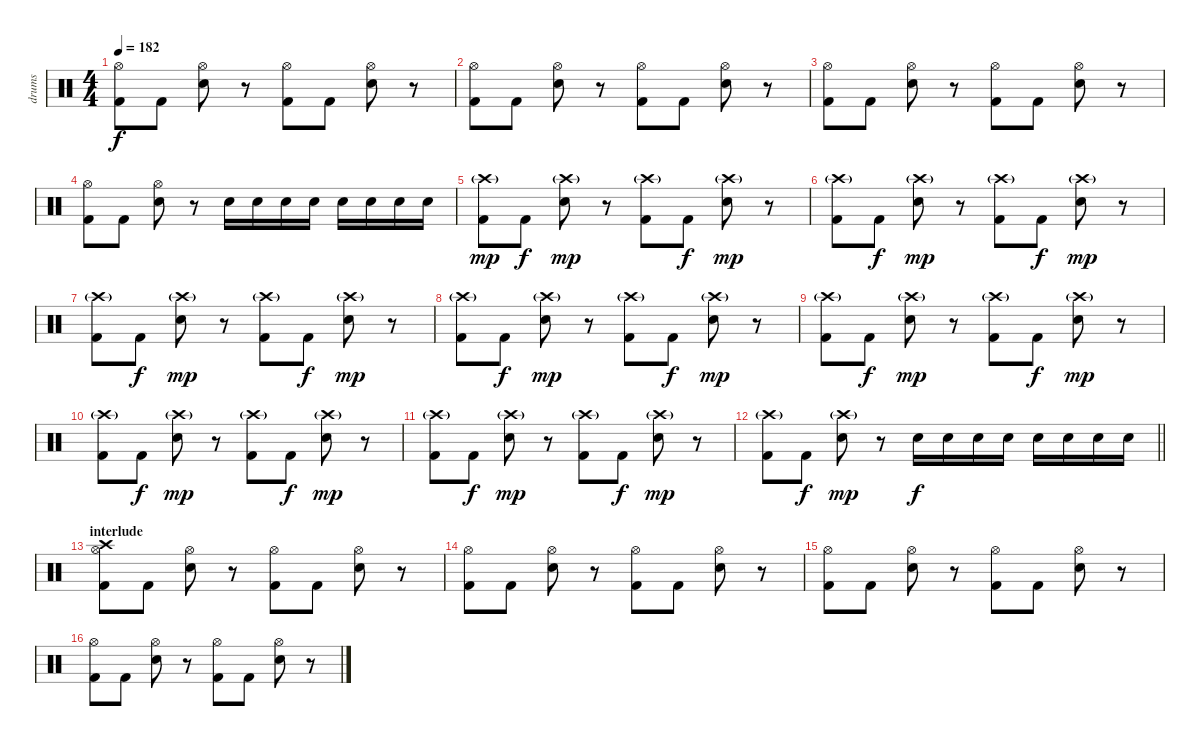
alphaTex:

\track ("drums" "drums") {instrument percussion}
\staff {score}
\articulation defaults
\ts (4 4)
\tempo 182
\clef neutral
\ks c
("Kick (hit) 2" "Hi-Hat (open)").8{dy f} "Kick (hit) 2".8 ("Electric Snare (hit)" "Hi-Hat (open)").8 r.8 ("Kick (hit) 2" "Hi-Hat (open)").8 "Kick (hit) 2".8 ("Electric Snare (hit)" "Hi-Hat (open)").8 r.8 |
("Kick (hit) 2" "Hi-Hat (open)").8 "Kick (hit) 2".8 ("Electric Snare (hit)" "Hi-Hat (open)").8 r.8 ("Kick (hit) 2" "Hi-Hat (open)").8 "Kick (hit) 2".8 ("Electric Snare (hit)" "Hi-Hat (open)").8 r.8 |
("Kick (hit) 2" "Hi-Hat (open)").8 "Kick (hit) 2".8 ("Electric Snare (hit)" "Hi-Hat (open)").8 r.8 ("Kick (hit) 2" "Hi-Hat (open)").8 "Kick (hit) 2".8 ("Electric Snare (hit)" "Hi-Hat (open)").8 r.8 |
("Kick (hit) 2" "Hi-Hat (open)").8 "Kick (hit) 2".8 ("Electric Snare (hit)" "Hi-Hat (open)").8 r.8 "Electric Snare (hit)".16 "Electric Snare (hit)".16 "Electric Snare (hit)".16 "Electric Snare (hit)".16 "Electric Snare (hit)".16 "Electric Snare (hit)".16 "Electric Snare (hit)".16 "Electric Snare (hit)".16 |
("Kick (hit) 2" "Crash high (hit)"{g}).8{dy mp} "Kick (hit) 2".8{dy f} ("Electric Snare (hit)" "Crash high (hit)"{g}).8{dy mp} r.8 ("Kick (hit) 2" "Crash high (hit)"{g}).8 "Kick (hit) 2".8{dy f} ("Electric Snare (hit)" "Crash high (hit)"{g}).8{dy mp} r.8 |
("Kick (hit) 2" "Crash high (hit)"{g}).8 "Kick (hit) 2".8{dy f} ("Electric Snare (hit)" "Crash high (hit)"{g}).8{dy mp} r.8 ("Kick (hit) 2" "Crash high (hit)"{g}).8 "Kick (hit) 2".8{dy f} ("Electric Snare (hit)" "Crash high (hit)"{g}).8{dy mp} r.8 |
("Kick (hit) 2" "Crash high (hit)"{g}).8 "Kick (hit) 2".8{dy f} ("Electric Snare (hit)" "Crash high (hit)"{g}).8{dy mp} r.8 ("Kick (hit) 2" "Crash high (hit)"{g}).8 "Kick (hit) 2".8{dy f} ("Electric Snare (hit)" "Crash high (hit)"{g}).8{dy mp} r.8 |
("Kick (hit) 2" "Crash high (hit)"{g}).8 "Kick (hit) 2".8{dy f} ("Electric Snare (hit)" "Crash high (hit)"{g}).8{dy mp} r.8 ("Kick (hit) 2" "Crash high (hit)"{g}).8 "Kick (hit) 2".8{dy f} ("Electric Snare (hit)" "Crash high (hit)"{g}).8{dy mp} r.8 |
("Kick (hit) 2" "Crash high (hit)"{g}).8 "Kick (hit) 2".8{dy f} ("Electric Snare (hit)" "Crash high (hit)"{g}).8{dy mp} r.8 ("Kick (hit) 2" "Crash high (hit)"{g}).8 "Kick (hit) 2".8{dy f} ("Electric Snare (hit)" "Crash high (hit)"{g}).8{dy mp} r.8 |
("Kick (hit) 2" "Crash high (hit)"{g}).8 "Kick (hit) 2".8{dy f} ("Electric Snare (hit)" "Crash high (hit)"{g}).8{dy mp} r.8 ("Kick (hit) 2" "Crash high (hit)"{g}).8 "Kick (hit) 2".8{dy f} ("Electric Snare (hit)" "Crash high (hit)"{g}).8{dy mp} r.8 |
("Kick (hit) 2" "Crash high (hit)"{g}).8 "Kick (hit) 2".8{dy f} ("Electric Snare (hit)" "Crash high (hit)"{g}).8{dy mp} r.8 ("Kick (hit) 2" "Crash high (hit)"{g}).8 "Kick (hit) 2".8{dy f} ("Electric Snare (hit)" "Crash high (hit)"{g}).8{dy mp} r.8 |
\barLineRight lightlight
("Kick (hit) 2" "Crash high (hit)"{g}).8 "Kick (hit) 2".8{dy f} ("Electric Snare (hit)" "Crash high (hit)"{g}).8{dy mp} r.8 "Electric Snare (hit)".16{dy f} "Electric Snare (hit)".16 "Electric Snare (hit)".16 "Electric Snare (hit)".16 "Electric Snare (hit)".16 "Electric Snare (hit)".16 "Electric Snare (hit)".16 "Electric Snare (hit)".16 |
\section ("" "interlude")
("Kick (hit) 2" "Hi-Hat (open)" "Crash high (hit)").8 "Kick (hit) 2".8 ("Electric Snare (hit)" "Hi-Hat (open)").8 r.8 ("Kick (hit) 2" "Hi-Hat (open)").8 "Kick (hit) 2".8 ("Electric Snare (hit)" "Hi-Hat (open)").8 r.8 |
("Kick (hit) 2" "Hi-Hat (open)").8 "Kick (hit) 2".8 ("Electric Snare (hit)" "Hi-Hat (open)").8 r.8 ("Kick (hit) 2" "Hi-Hat (open)").8 "Kick (hit) 2".8 ("Electric Snare (hit)" "Hi-Hat (open)").8 r.8 |
("Kick (hit) 2" "Hi-Hat (open)").8 "Kick (hit) 2".8 ("Electric Snare (hit)" "Hi-Hat (open)").8 r.8 ("Kick (hit) 2" "Hi-Hat (open)").8 "Kick (hit) 2".8 ("Electric Snare (hit)" "Hi-Hat (open)").8 r.8 |
("Kick (hit) 2" "Hi-Hat (open)").8 "Kick (hit) 2".8 ("Electric Snare (hit)" "Hi-Hat (open)").8 r.8 ("Kick (hit) 2" "Hi-Hat (open)").8 "Kick (hit) 2".8 ("Electric Snare (hit)" "Hi-Hat (open)").8 r.8
